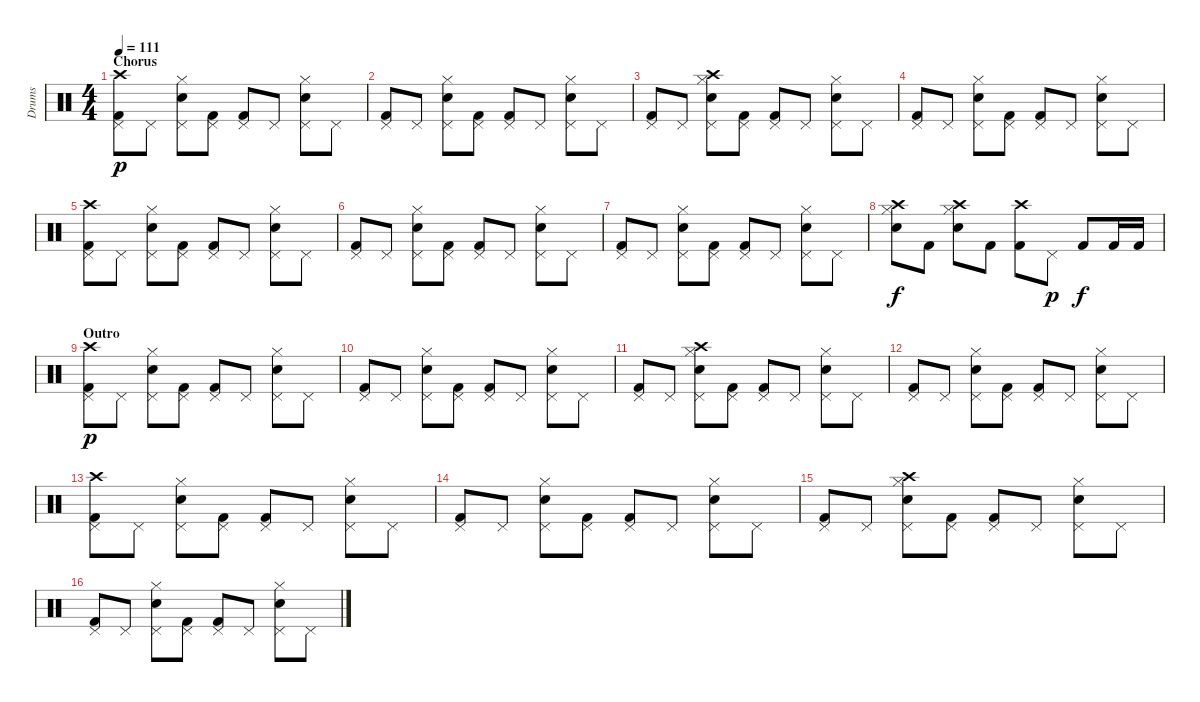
\track ("Drums" "Drums") {instrument percussion}
\staff {score}
\articulation defaults
\ts (4 4)
\section ("" "Chorus")
\tempo 111
\clef neutral
\ks c
("Pedal Hi-Hat (hit)" "Kick (hit) 2" "Crash high (hit)").8{dy p} "Pedal Hi-Hat (hit)".8 ("Pedal Hi-Hat (hit)" "Hand Clap (hit)" "Hi-Hat (closed)").8 ("Pedal Hi-Hat (hit)" "Kick (hit) 2").8 ("Pedal Hi-Hat (hit)" "Kick (hit) 2").8 "Pedal Hi-Hat (hit)".8 ("Pedal Hi-Hat (hit)" "Hand Clap (hit)" "Hi-Hat (closed)").8 "Pedal Hi-Hat (hit)".8 |
("Pedal Hi-Hat (hit)" "Kick (hit) 2").8 "Pedal Hi-Hat (hit)".8 ("Pedal Hi-Hat (hit)" "Hand Clap (hit)" "Hi-Hat (closed)").8 ("Pedal Hi-Hat (hit)" "Kick (hit) 2").8 ("Pedal Hi-Hat (hit)" "Kick (hit) 2").8 "Pedal Hi-Hat (hit)".8 ("Pedal Hi-Hat (hit)" "Hand Clap (hit)" "Hi-Hat (closed)").8 "Pedal Hi-Hat (hit)".8 |
("Pedal Hi-Hat (hit)" "Kick (hit) 2").8 "Pedal Hi-Hat (hit)".8 ("Pedal Hi-Hat (hit)" "Hand Clap (hit)" "Hi-Hat (closed)" "Crash high (hit)").8 ("Pedal Hi-Hat (hit)" "Kick (hit) 2").8 ("Pedal Hi-Hat (hit)" "Kick (hit) 2").8 "Pedal Hi-Hat (hit)".8 ("Pedal Hi-Hat (hit)" "Hand Clap (hit)" "Hi-Hat (closed)").8 "Pedal Hi-Hat (hit)".8 |
("Pedal Hi-Hat (hit)" "Kick (hit) 2").8 "Pedal Hi-Hat (hit)".8 ("Pedal Hi-Hat (hit)" "Hand Clap (hit)" "Hi-Hat (closed)").8 ("Pedal Hi-Hat (hit)" "Kick (hit) 2").8 ("Pedal Hi-Hat (hit)" "Kick (hit) 2").8 "Pedal Hi-Hat (hit)".8 ("Pedal Hi-Hat (hit)" "Hand Clap (hit)" "Hi-Hat (closed)").8 "Pedal Hi-Hat (hit)".8 |
("Pedal Hi-Hat (hit)" "Kick (hit) 2" "Crash high (hit)").8 "Pedal Hi-Hat (hit)".8 ("Pedal Hi-Hat (hit)" "Hand Clap (hit)" "Hi-Hat (closed)").8 ("Pedal Hi-Hat (hit)" "Kick (hit) 2").8 ("Pedal Hi-Hat (hit)" "Kick (hit) 2").8 "Pedal Hi-Hat (hit)".8 ("Pedal Hi-Hat (hit)" "Hand Clap (hit)" "Hi-Hat (closed)").8 "Pedal Hi-Hat (hit)".8 |
("Pedal Hi-Hat (hit)" "Kick (hit) 2").8 "Pedal Hi-Hat (hit)".8 ("Pedal Hi-Hat (hit)" "Hand Clap (hit)" "Hi-Hat (closed)").8 ("Pedal Hi-Hat (hit)" "Kick (hit) 2").8 ("Pedal Hi-Hat (hit)" "Kick (hit) 2").8 "Pedal Hi-Hat (hit)".8 ("Pedal Hi-Hat (hit)" "Hand Clap (hit)" "Hi-Hat (closed)").8 "Pedal Hi-Hat (hit)".8 |
("Pedal Hi-Hat (hit)" "Kick (hit) 2").8 "Pedal Hi-Hat (hit)".8 ("Pedal Hi-Hat (hit)" "Hand Clap (hit)" "Hi-Hat (closed)").8 ("Pedal Hi-Hat (hit)" "Kick (hit) 2").8 ("Pedal Hi-Hat (hit)" "Kick (hit) 2").8 "Pedal Hi-Hat (hit)".8 ("Pedal Hi-Hat (hit)" "Hand Clap (hit)" "Hi-Hat (closed)").8 "Pedal Hi-Hat (hit)".8 |
("Crash high (hit)" "Hand Clap (hit)" "Hi-Hat (closed)").8{dy f} "Kick (hit) 2".8 ("Crash high (hit)" "Hand Clap (hit)" "Hi-Hat (closed)").8 "Kick (hit) 2".8 ("Crash high (hit)" "Kick (hit) 2").8 "Pedal Hi-Hat (hit)".8{dy p} "Kick (hit) 2".8{dy f} "Kick (hit) 2".16 "Kick (hit) 2".16 |
\section ("" "Outro")
("Pedal Hi-Hat (hit)" "Kick (hit) 2" "Crash high (hit)").8{dy p} "Pedal Hi-Hat (hit)".8 ("Pedal Hi-Hat (hit)" "Hand Clap (hit)" "Hi-Hat (closed)").8 ("Pedal Hi-Hat (hit)" "Kick (hit) 2").8 ("Pedal Hi-Hat (hit)" "Kick (hit) 2").8 "Pedal Hi-Hat (hit)".8 ("Pedal Hi-Hat (hit)" "Hand Clap (hit)" "Hi-Hat (closed)").8 "Pedal Hi-Hat (hit)".8 |
("Pedal Hi-Hat (hit)" "Kick (hit) 2").8 "Pedal Hi-Hat (hit)".8 ("Pedal Hi-Hat (hit)" "Hand Clap (hit)" "Hi-Hat (closed)").8 ("Pedal Hi-Hat (hit)" "Kick (hit) 2").8 ("Pedal Hi-Hat (hit)" "Kick (hit) 2").8 "Pedal Hi-Hat (hit)".8 ("Pedal Hi-Hat (hit)" "Hand Clap (hit)" "Hi-Hat (closed)").8 "Pedal Hi-Hat (hit)".8 |
("Pedal Hi-Hat (hit)" "Kick (hit) 2").8 "Pedal Hi-Hat (hit)".8 ("Pedal Hi-Hat (hit)" "Hand Clap (hit)" "Hi-Hat (closed)" "Crash high (hit)").8 ("Pedal Hi-Hat (hit)" "Kick (hit) 2").8 ("Pedal Hi-Hat (hit)" "Kick (hit) 2").8 "Pedal Hi-Hat (hit)".8 ("Pedal Hi-Hat (hit)" "Hand Clap (hit)" "Hi-Hat (closed)").8 "Pedal Hi-Hat (hit)".8 |
("Pedal Hi-Hat (hit)" "Kick (hit) 2").8 "Pedal Hi-Hat (hit)".8 ("Pedal Hi-Hat (hit)" "Hand Clap (hit)" "Hi-Hat (closed)").8 ("Pedal Hi-Hat (hit)" "Kick (hit) 2").8 ("Pedal Hi-Hat (hit)" "Kick (hit) 2").8 "Pedal Hi-Hat (hit)".8 ("Pedal Hi-Hat (hit)" "Hand Clap (hit)" "Hi-Hat (closed)").8 "Pedal Hi-Hat (hit)".8 |
("Pedal Hi-Hat (hit)" "Kick (hit) 2" "Crash high (hit)").8 "Pedal Hi-Hat (hit)".8 ("Pedal Hi-Hat (hit)" "Hand Clap (hit)" "Hi-Hat (closed)").8 ("Pedal Hi-Hat (hit)" "Kick (hit) 2").8 ("Pedal Hi-Hat (hit)" "Kick (hit) 2").8 "Pedal Hi-Hat (hit)".8 ("Pedal Hi-Hat (hit)" "Hand Clap (hit)" "Hi-Hat (closed)").8 "Pedal Hi-Hat (hit)".8 |
("Pedal Hi-Hat (hit)" "Kick (hit) 2").8 "Pedal Hi-Hat (hit)".8 ("Pedal Hi-Hat (hit)" "Hand Clap (hit)" "Hi-Hat (closed)").8 ("Pedal Hi-Hat (hit)" "Kick (hit) 2").8 ("Pedal Hi-Hat (hit)" "Kick (hit) 2").8 "Pedal Hi-Hat (hit)".8 ("Pedal Hi-Hat (hit)" "Hand Clap (hit)" "Hi-Hat (closed)").8 "Pedal Hi-Hat (hit)".8 |
("Pedal Hi-Hat (hit)" "Kick (hit) 2").8 "Pedal Hi-Hat (hit)".8 ("Pedal Hi-Hat (hit)" "Hand Clap (hit)" "Hi-Hat (closed)" "Crash high (hit)").8 ("Pedal Hi-Hat (hit)" "Kick (hit) 2").8 ("Pedal Hi-Hat (hit)" "Kick (hit) 2").8 "Pedal Hi-Hat (hit)".8 ("Pedal Hi-Hat (hit)" "Hand Clap (hit)" "Hi-Hat (closed)").8 "Pedal Hi-Hat (hit)".8 |
("Pedal Hi-Hat (hit)" "Kick (hit) 2").8 "Pedal Hi-Hat (hit)".8 ("Pedal Hi-Hat (hit)" "Hand Clap (hit)" "Hi-Hat (closed)").8 ("Pedal Hi-Hat (hit)" "Kick (hit) 2").8 ("Pedal Hi-Hat (hit)" "Kick (hit) 2").8 "Pedal Hi-Hat (hit)".8 ("Pedal Hi-Hat (hit)" "Hand Clap (hit)" "Hi-Hat (closed)").8 "Pedal Hi-Hat (hit)".8
